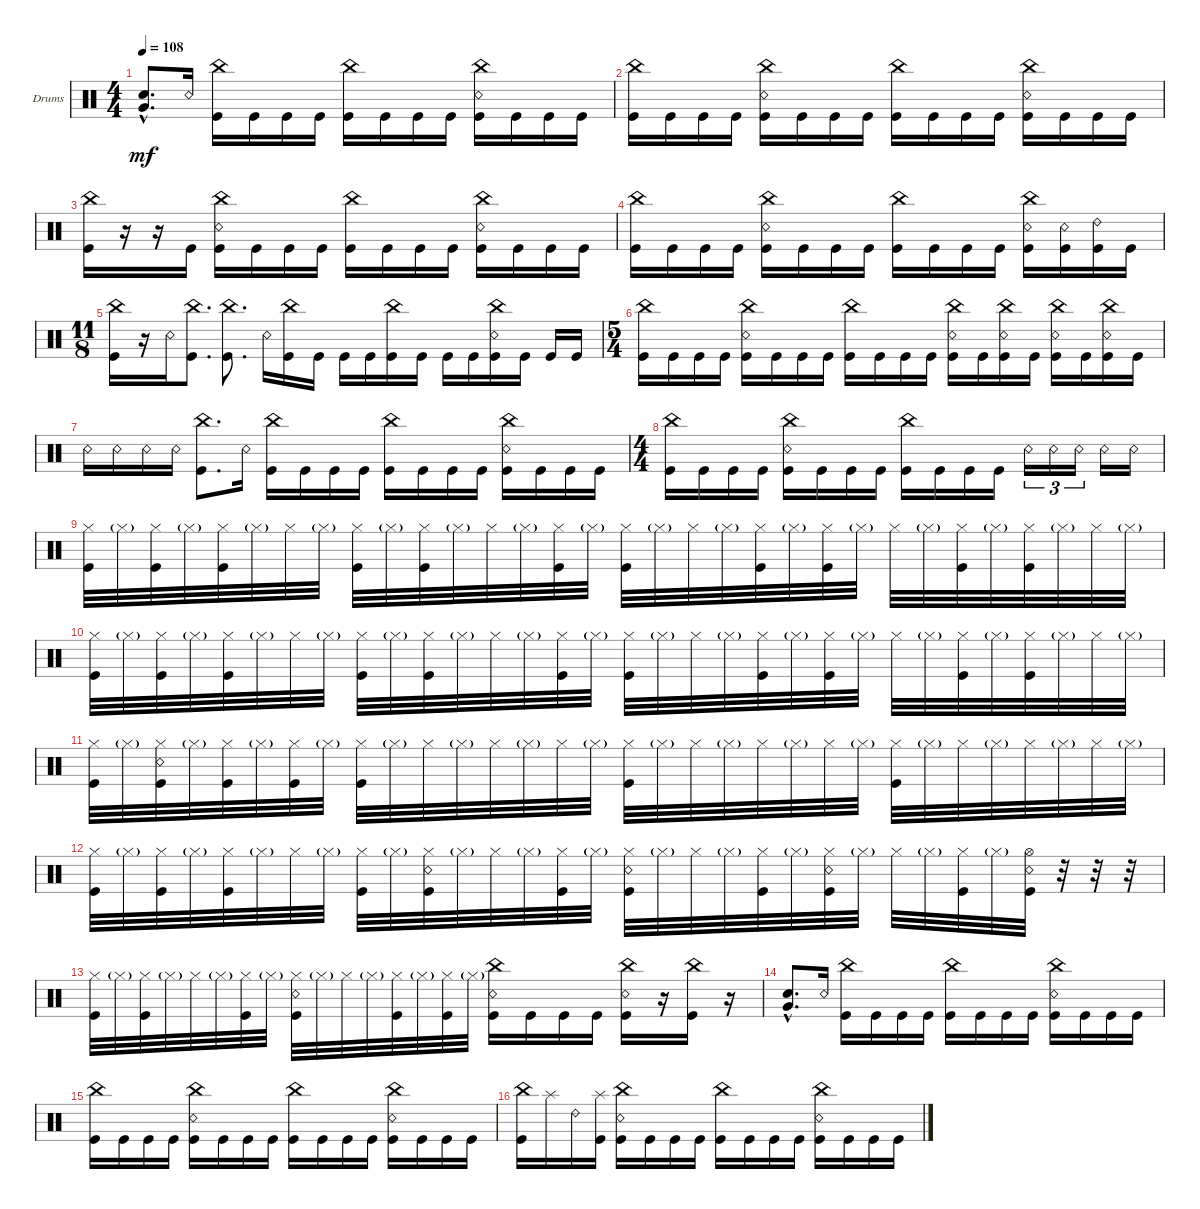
\defaultSystemsLayout 4
\bracketExtendMode groupsimilarinstruments
\firstSystemTrackNameOrientation horizontal
\otherSystemsTrackNameOrientation horizontal
\track ("Drumkit" "Drums") {solo instrument percussion}
\staff {score}
\articulation defaults
\ts (4 4)
\tempo 108
\clef neutral
\ks c
("Snare (hit) 2" "Very Low Tom (hit)"{hac}).8{d dy mf} "Snare (rim shot)".16 ("Kick (hit)" "China (hit)").16 "Kick (hit)".16 "Kick (hit)".16 "Kick (hit)".16 ("Kick (hit)" "China (hit)").16 "Kick (hit)".16 "Kick (hit)".16 "Kick (hit)".16 ("Kick (hit)" "China (hit)" "Snare (rim shot)").16 "Kick (hit)".16 "Kick (hit)".16 "Kick (hit)".16 |
("Kick (hit)" "China (hit)").16 "Kick (hit)".16 "Kick (hit)".16 "Kick (hit)".16 ("Kick (hit)" "China (hit)" "Snare (rim shot)").16 "Kick (hit)".16 "Kick (hit)".16 "Kick (hit)".16 ("Kick (hit)" "China (hit)").16 "Kick (hit)".16 "Kick (hit)".16 "Kick (hit)".16 ("Kick (hit)" "China (hit)" "Snare (rim shot)").16 "Kick (hit)".16 "Kick (hit)".16 "Kick (hit)".16 |
("Kick (hit)" "China (hit)").16 r.16 r.16 "Kick (hit)".16 ("Kick (hit)" "China (hit)" "Snare (rim shot)").16 "Kick (hit)".16 "Kick (hit)".16 "Kick (hit)".16 ("Kick (hit)" "China (hit)").16 "Kick (hit)".16 "Kick (hit)".16 "Kick (hit)".16 ("Kick (hit)" "China (hit)" "Snare (rim shot)").16 "Kick (hit)".16 "Kick (hit)".16 "Kick (hit)".16 |
("Kick (hit)" "China (hit)").16 "Kick (hit)".16 "Kick (hit)".16 "Kick (hit)".16 ("Kick (hit)" "China (hit)" "Snare (rim shot)").16 "Kick (hit)".16 "Kick (hit)".16 "Kick (hit)".16 ("Kick (hit)" "China (hit)").16 "Kick (hit)".16 "Kick (hit)".16 "Kick (hit)".16 ("Kick (hit)" "China (hit)" "Snare (rim shot)").16 ("Kick (hit)" "Snare (rim shot)").16 ("Kick (hit)" "Ride (bell) 2").16 "Kick (hit)".16 |
\ts (11 8)
("Kick (hit)" "China (hit)").16 r.16 "Snare (rim shot)".16 ("Kick (hit)" "China (hit)").8{d} ("Kick (hit)" "China (hit)").8{d} "Snare (rim shot)".16 ("Kick (hit)" "China (hit)").16 "Kick (hit)".16 "Kick (hit)".16 "Kick (hit)".16 ("Kick (hit)" "China (hit)").16 "Kick (hit)".16 "Kick (hit)".16 "Kick (hit)".16 ("Kick (hit)" "China (hit)" "Snare (rim shot)").16 "Kick (hit)".16 "Kick (hit)".16 "Kick (hit)".16 |
\ts (5 4)
("Kick (hit)" "China (hit)").16 "Kick (hit)".16 "Kick (hit)".16 "Kick (hit)".16 ("Kick (hit)" "China (hit)" "Snare (rim shot)").16 "Kick (hit)".16 "Kick (hit)".16 "Kick (hit)".16 ("Kick (hit)" "China (hit)").16 "Kick (hit)".16 "Kick (hit)".16 "Kick (hit)".16 ("Kick (hit)" "China (hit)" "Snare (rim shot)").16 "Kick (hit)".16 ("Kick (hit)" "China (hit)" "Snare (rim shot)").16 "Kick (hit)".16 ("Kick (hit)" "China (hit)" "Snare (rim shot)").16 "Kick (hit)".16 ("Kick (hit)" "China (hit)" "Snare (rim shot)").16 "Kick (hit)".16 |
"Snare (rim shot)".16 "Snare (rim shot)".16 "Snare (rim shot)".16 "Snare (rim shot)".16 ("Kick (hit)" "China (hit)").8{d} "Snare (rim shot)".16 ("Kick (hit)" "China (hit)").16 "Kick (hit)".16 "Kick (hit)".16 "Kick (hit)".16 ("Kick (hit)" "China (hit)").16 "Kick (hit)".16 "Kick (hit)".16 "Kick (hit)".16 ("Kick (hit)" "China (hit)" "Snare (rim shot)").16 "Kick (hit)".16 "Kick (hit)".16 "Kick (hit)".16 |
\ts (4 4)
("Kick (hit)" "China (hit)").16 "Kick (hit)".16 "Kick (hit)".16 "Kick (hit)".16 ("Kick (hit)" "China (hit)" "Snare (rim shot)").16 "Kick (hit)".16 "Kick (hit)".16 "Kick (hit)".16 ("Kick (hit)" "China (hit)").16 "Kick (hit)".16 "Kick (hit)".16 "Kick (hit)".16 "Snare (rim shot)".16{tu (3 2)} "Snare (rim shot)".16{tu (3 2)} "Snare (rim shot)".16{tu (3 2)} "Snare (rim shot)".16 "Snare (rim shot)".16 |
("Hi-Hat (closed)" "Kick (hit)").32 "Hi-Hat (closed)"{g}.32 ("Hi-Hat (closed)" "Kick (hit)").32 "Hi-Hat (closed)"{g}.32 ("Hi-Hat (closed)" "Kick (hit)").32 "Hi-Hat (closed)"{g}.32 "Hi-Hat (closed)".32 "Hi-Hat (closed)"{g}.32 ("Hi-Hat (closed)" "Kick (hit)").32 "Hi-Hat (closed)"{g}.32 ("Hi-Hat (closed)" "Kick (hit)").32 "Hi-Hat (closed)"{g}.32 "Hi-Hat (closed)".32 "Hi-Hat (closed)"{g}.32 ("Hi-Hat (closed)" "Kick (hit)").32 "Hi-Hat (closed)"{g}.32 ("Hi-Hat (closed)" "Kick (hit)").32 "Hi-Hat (closed)"{g}.32 "Hi-Hat (closed)".32 "Hi-Hat (closed)"{g}.32 ("Hi-Hat (closed)" "Kick (hit)").32 "Hi-Hat (closed)"{g}.32 ("Hi-Hat (closed)" "Kick (hit)").32 "Hi-Hat (closed)"{g}.32 "Hi-Hat (closed)".32 "Hi-Hat (closed)"{g}.32 ("Hi-Hat (closed)" "Kick (hit)").32 "Hi-Hat (closed)"{g}.32 ("Hi-Hat (closed)" "Kick (hit)").32 "Hi-Hat (closed)"{g}.32 "Hi-Hat (closed)".32 "Hi-Hat (closed)"{g}.32 |
("Hi-Hat (closed)" "Kick (hit)").32 "Hi-Hat (closed)"{g}.32 ("Hi-Hat (closed)" "Kick (hit)").32 "Hi-Hat (closed)"{g}.32 ("Hi-Hat (closed)" "Kick (hit)").32 "Hi-Hat (closed)"{g}.32 "Hi-Hat (closed)".32 "Hi-Hat (closed)"{g}.32 ("Hi-Hat (closed)" "Kick (hit)").32 "Hi-Hat (closed)"{g}.32 ("Hi-Hat (closed)" "Kick (hit)").32 "Hi-Hat (closed)"{g}.32 "Hi-Hat (closed)".32 "Hi-Hat (closed)"{g}.32 ("Hi-Hat (closed)" "Kick (hit)").32 "Hi-Hat (closed)"{g}.32 ("Hi-Hat (closed)" "Kick (hit)").32 "Hi-Hat (closed)"{g}.32 "Hi-Hat (closed)".32 "Hi-Hat (closed)"{g}.32 ("Hi-Hat (closed)" "Kick (hit)").32 "Hi-Hat (closed)"{g}.32 ("Hi-Hat (closed)" "Kick (hit)").32 "Hi-Hat (closed)"{g}.32 "Hi-Hat (closed)".32 "Hi-Hat (closed)"{g}.32 ("Hi-Hat (closed)" "Kick (hit)").32 "Hi-Hat (closed)"{g}.32 ("Hi-Hat (closed)" "Kick (hit)").32 "Hi-Hat (closed)"{g}.32 "Hi-Hat (closed)".32 "Hi-Hat (closed)"{g}.32 |
("Hi-Hat (closed)" "Kick (hit)").32 "Hi-Hat (closed)"{g}.32 ("Hi-Hat (closed)" "Kick (hit)" "Snare (rim shot)").32 "Hi-Hat (closed)"{g}.32 ("Hi-Hat (closed)" "Kick (hit)").32 "Hi-Hat (closed)"{g}.32 ("Hi-Hat (closed)" "Kick (hit)").32 "Hi-Hat (closed)"{g}.32 ("Hi-Hat (closed)" "Kick (hit)").32 "Hi-Hat (closed)"{g}.32 "Hi-Hat (closed)".32 "Hi-Hat (closed)"{g}.32 "Hi-Hat (closed)".32 "Hi-Hat (closed)"{g}.32 "Hi-Hat (closed)".32 "Hi-Hat (closed)"{g}.32 ("Hi-Hat (closed)" "Kick (hit)").32 "Hi-Hat (closed)"{g}.32 "Hi-Hat (closed)".32 "Hi-Hat (closed)"{g}.32 "Hi-Hat (closed)".32 "Hi-Hat (closed)"{g}.32 "Hi-Hat (closed)".32 "Hi-Hat (closed)"{g}.32 ("Hi-Hat (closed)" "Kick (hit)").32 "Hi-Hat (closed)"{g}.32 "Hi-Hat (closed)".32 "Hi-Hat (closed)"{g}.32 "Hi-Hat (closed)".32 "Hi-Hat (closed)"{g}.32 "Hi-Hat (closed)".32 "Hi-Hat (closed)"{g}.32 |
("Hi-Hat (closed)" "Kick (hit)").32 "Hi-Hat (closed)"{g}.32 ("Hi-Hat (closed)" "Kick (hit)").32 "Hi-Hat (closed)"{g}.32 ("Hi-Hat (closed)" "Kick (hit)").32 "Hi-Hat (closed)"{g}.32 "Hi-Hat (closed)".32 "Hi-Hat (closed)"{g}.32 ("Hi-Hat (closed)" "Kick (hit)").32 "Hi-Hat (closed)"{g}.32 ("Hi-Hat (closed)" "Kick (hit)" "Snare (rim shot)").32 "Hi-Hat (closed)"{g}.32 "Hi-Hat (closed)".32 "Hi-Hat (closed)"{g}.32 ("Hi-Hat (closed)" "Kick (hit)").32 "Hi-Hat (closed)"{g}.32 ("Hi-Hat (closed)" "Kick (hit)" "Snare (rim shot)").32 "Hi-Hat (closed)"{g}.32 "Hi-Hat (closed)".32 "Hi-Hat (closed)"{g}.32 ("Hi-Hat (closed)" "Kick (hit)").32 "Hi-Hat (closed)"{g}.32 ("Hi-Hat (closed)" "Kick (hit)" "Snare (rim shot)").32 "Hi-Hat (closed)"{g}.32 "Hi-Hat (closed)".32 "Hi-Hat (closed)"{g}.32 ("Hi-Hat (closed)" "Kick (hit)").32 "Hi-Hat (closed)"{g}.32 ("Hi-Hat (open)" "Kick (hit)" "Snare (rim shot)").32 r.32 r.32 r.32 |
("Hi-Hat (closed)" "Kick (hit)").32 "Hi-Hat (closed)"{g}.32 ("Hi-Hat (closed)" "Kick (hit)").32 "Hi-Hat (closed)"{g}.32 "Hi-Hat (closed)".32 "Hi-Hat (closed)"{g}.32 ("Hi-Hat (closed)" "Kick (hit)").32 "Hi-Hat (closed)"{g}.32 ("Hi-Hat (closed)" "Kick (hit)" "Snare (rim shot)").32 "Hi-Hat (closed)"{g}.32 "Hi-Hat (closed)".32 "Hi-Hat (closed)"{g}.32 ("Hi-Hat (closed)" "Kick (hit)").32 "Hi-Hat (closed)"{g}.32 ("Hi-Hat (closed)" "Kick (hit)").32 "Hi-Hat (closed)"{g}.32 ("Snare (rim shot)" "China (hit)" "Kick (hit)").16 "Kick (hit)".16 "Kick (hit)".16 "Kick (hit)".16 ("Snare (rim shot)" "Kick (hit)" "China (hit)").16 r.16 ("Kick (hit)" "China (hit)").16 r.16 |
("Snare (hit) 2" "Very Low Tom (hit)"{hac}).8{d} "Snare (rim shot)".16 ("Kick (hit)" "China (hit)").16 "Kick (hit)".16 "Kick (hit)".16 "Kick (hit)".16 ("Kick (hit)" "China (hit)").16 "Kick (hit)".16 "Kick (hit)".16 "Kick (hit)".16 ("Kick (hit)" "China (hit)" "Snare (rim shot)").16 "Kick (hit)".16 "Kick (hit)".16 "Kick (hit)".16 |
("Kick (hit)" "China (hit)").16 "Kick (hit)".16 "Kick (hit)".16 "Kick (hit)".16 ("Kick (hit)" "China (hit)" "Snare (rim shot)").16 "Kick (hit)".16 "Kick (hit)".16 "Kick (hit)".16 ("Kick (hit)" "China (hit)").16 "Kick (hit)".16 "Kick (hit)".16 "Kick (hit)".16 ("Kick (hit)" "China (hit)" "Snare (rim shot)").16 "Kick (hit)".16 "Kick (hit)".16 "Kick (hit)".16 |
("Kick (hit)" "China (hit)").16 "Splash (hit)".16 "Ride (bell) 2".16 ("Splash (hit)" "Kick (hit)").16 ("Kick (hit)" "China (hit)" "Snare (rim shot)").16 "Kick (hit)".16 "Kick (hit)".16 "Kick (hit)".16 ("Kick (hit)" "China (hit)").16 "Kick (hit)".16 "Kick (hit)".16 "Kick (hit)".16 ("Kick (hit)" "China (hit)" "Snare (rim shot)").16 "Kick (hit)".16 "Kick (hit)".16 "Kick (hit)".16
